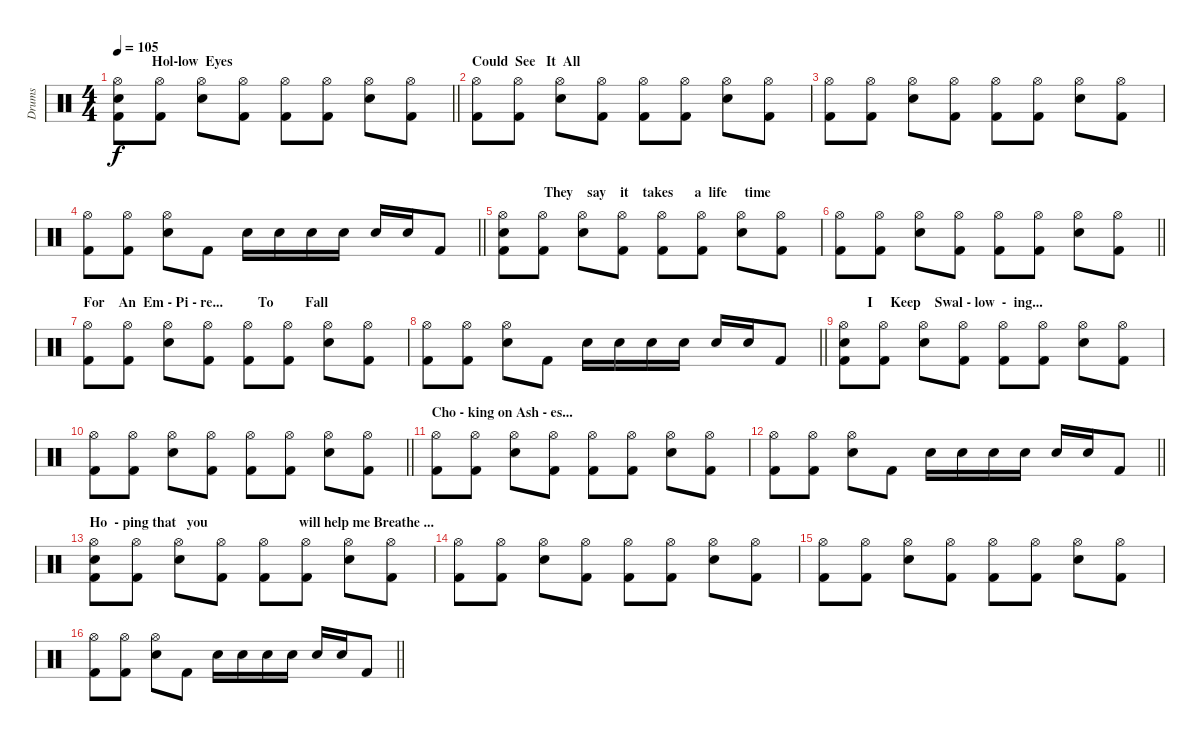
\track ("Drums " "Drums ") {instrument percussion}
\staff {score}
\articulation defaults
\ts (4 4)
\section ("" "           Hol-low  Eyes")
\tempo 105
\clef neutral
\barLineRight lightlight
\ks c
("Hi-Hat (open)" "Kick (hit) 2" "Snare (hit) 2").8{dy f} ("Hi-Hat (open)" "Kick (hit) 2").8 ("Hi-Hat (open)" "Snare (hit) 2").8 ("Hi-Hat (open)" "Kick (hit) 2").8 ("Hi-Hat (open)" "Kick (hit) 2").8 ("Hi-Hat (open)" "Kick (hit) 2").8 ("Hi-Hat (open)" "Snare (hit) 2").8 ("Hi-Hat (open)" "Kick (hit) 2").8 |
\section ("" "Could  See   It  All")
("Hi-Hat (open)" "Kick (hit) 2").8 ("Hi-Hat (open)" "Kick (hit) 2").8 ("Hi-Hat (open)" "Snare (hit) 2").8 ("Hi-Hat (open)" "Kick (hit) 2").8 ("Hi-Hat (open)" "Kick (hit) 2").8 ("Hi-Hat (open)" "Kick (hit) 2").8 ("Hi-Hat (open)" "Snare (hit) 2").8 ("Hi-Hat (open)" "Kick (hit) 2").8 |
("Hi-Hat (open)" "Kick (hit) 2").8 ("Hi-Hat (open)" "Kick (hit) 2").8 ("Hi-Hat (open)" "Snare (hit) 2").8 ("Hi-Hat (open)" "Kick (hit) 2").8 ("Hi-Hat (open)" "Kick (hit) 2").8 ("Hi-Hat (open)" "Kick (hit) 2").8 ("Hi-Hat (open)" "Snare (hit) 2").8 ("Hi-Hat (open)" "Kick (hit) 2").8 |
\barLineRight lightlight
("Hi-Hat (open)" "Kick (hit) 2").8 ("Hi-Hat (open)" "Kick (hit) 2").8 ("Hi-Hat (open)" "Snare (hit) 2").8 "Kick (hit) 2".8 "Snare (hit) 2".16 "Snare (hit) 2".16 "Snare (hit) 2".16 "Snare (hit) 2".16 "Snare (hit) 2".16 "Snare (hit) 2".16 "Kick (hit) 2".8 |
\section ("" "             They    say    it    takes      a  life     time")
("Hi-Hat (open)" "Kick (hit) 2" "Snare (hit) 2").8 ("Hi-Hat (open)" "Kick (hit) 2").8 ("Hi-Hat (open)" "Snare (hit) 2").8 ("Hi-Hat (open)" "Kick (hit) 2").8 ("Hi-Hat (open)" "Kick (hit) 2").8 ("Hi-Hat (open)" "Kick (hit) 2").8 ("Hi-Hat (open)" "Snare (hit) 2").8 ("Hi-Hat (open)" "Kick (hit) 2").8 |
\barLineRight lightlight
("Hi-Hat (open)" "Kick (hit) 2").8 ("Hi-Hat (open)" "Kick (hit) 2").8 ("Hi-Hat (open)" "Snare (hit) 2").8 ("Hi-Hat (open)" "Kick (hit) 2").8 ("Hi-Hat (open)" "Kick (hit) 2").8 ("Hi-Hat (open)" "Kick (hit) 2").8 ("Hi-Hat (open)" "Snare (hit) 2").8 ("Hi-Hat (open)" "Kick (hit) 2").8 |
\section ("" "For    An  Em - Pi - re...          To         Fall")
("Hi-Hat (open)" "Kick (hit) 2").8 ("Hi-Hat (open)" "Kick (hit) 2").8 ("Hi-Hat (open)" "Snare (hit) 2").8 ("Hi-Hat (open)" "Kick (hit) 2").8 ("Hi-Hat (open)" "Kick (hit) 2").8 ("Hi-Hat (open)" "Kick (hit) 2").8 ("Hi-Hat (open)" "Snare (hit) 2").8 ("Hi-Hat (open)" "Kick (hit) 2").8 |
\barLineRight lightlight
("Hi-Hat (open)" "Kick (hit) 2").8 ("Hi-Hat (open)" "Kick (hit) 2").8 ("Hi-Hat (open)" "Snare (hit) 2").8 "Kick (hit) 2".8 "Snare (hit) 2".16 "Snare (hit) 2".16 "Snare (hit) 2".16 "Snare (hit) 2".16 "Snare (hit) 2".16 "Snare (hit) 2".16 "Kick (hit) 2".8 |
\section ("" "        I     Keep    Swal - low  -  ing...")
("Hi-Hat (open)" "Kick (hit) 2" "Snare (hit) 2").8 ("Hi-Hat (open)" "Kick (hit) 2").8 ("Hi-Hat (open)" "Snare (hit) 2").8 ("Hi-Hat (open)" "Kick (hit) 2").8 ("Hi-Hat (open)" "Kick (hit) 2").8 ("Hi-Hat (open)" "Kick (hit) 2").8 ("Hi-Hat (open)" "Snare (hit) 2").8 ("Hi-Hat (open)" "Kick (hit) 2").8 |
\barLineRight lightlight
("Hi-Hat (open)" "Kick (hit) 2").8 ("Hi-Hat (open)" "Kick (hit) 2").8 ("Hi-Hat (open)" "Snare (hit) 2").8 ("Hi-Hat (open)" "Kick (hit) 2").8 ("Hi-Hat (open)" "Kick (hit) 2").8 ("Hi-Hat (open)" "Kick (hit) 2").8 ("Hi-Hat (open)" "Snare (hit) 2").8 ("Hi-Hat (open)" "Kick (hit) 2").8 |
\section ("" "Cho - king on Ash - es...")
("Hi-Hat (open)" "Kick (hit) 2").8 ("Hi-Hat (open)" "Kick (hit) 2").8 ("Hi-Hat (open)" "Snare (hit) 2").8 ("Hi-Hat (open)" "Kick (hit) 2").8 ("Hi-Hat (open)" "Kick (hit) 2").8 ("Hi-Hat (open)" "Kick (hit) 2").8 ("Hi-Hat (open)" "Snare (hit) 2").8 ("Hi-Hat (open)" "Kick (hit) 2").8 |
\barLineRight lightlight
("Hi-Hat (open)" "Kick (hit) 2").8 ("Hi-Hat (open)" "Kick (hit) 2").8 ("Hi-Hat (open)" "Snare (hit) 2").8 "Kick (hit) 2".8 "Snare (hit) 2".16 "Snare (hit) 2".16 "Snare (hit) 2".16 "Snare (hit) 2".16 "Snare (hit) 2".16 "Snare (hit) 2".16 "Kick (hit) 2".8 |
\section ("" "Ho  - ping that   you                          will help me Breathe ...")
("Hi-Hat (open)" "Kick (hit) 2" "Snare (hit) 2").8 ("Hi-Hat (open)" "Kick (hit) 2").8 ("Hi-Hat (open)" "Snare (hit) 2").8 ("Hi-Hat (open)" "Kick (hit) 2").8 ("Hi-Hat (open)" "Kick (hit) 2").8 ("Hi-Hat (open)" "Kick (hit) 2").8 ("Hi-Hat (open)" "Snare (hit) 2").8 ("Hi-Hat (open)" "Kick (hit) 2").8 |
("Hi-Hat (open)" "Kick (hit) 2").8 ("Hi-Hat (open)" "Kick (hit) 2").8 ("Hi-Hat (open)" "Snare (hit) 2").8 ("Hi-Hat (open)" "Kick (hit) 2").8 ("Hi-Hat (open)" "Kick (hit) 2").8 ("Hi-Hat (open)" "Kick (hit) 2").8 ("Hi-Hat (open)" "Snare (hit) 2").8 ("Hi-Hat (open)" "Kick (hit) 2").8 |
("Hi-Hat (open)" "Kick (hit) 2").8 ("Hi-Hat (open)" "Kick (hit) 2").8 ("Hi-Hat (open)" "Snare (hit) 2").8 ("Hi-Hat (open)" "Kick (hit) 2").8 ("Hi-Hat (open)" "Kick (hit) 2").8 ("Hi-Hat (open)" "Kick (hit) 2").8 ("Hi-Hat (open)" "Snare (hit) 2").8 ("Hi-Hat (open)" "Kick (hit) 2").8 |
\barLineRight lightlight
("Hi-Hat (open)" "Kick (hit) 2").8 ("Hi-Hat (open)" "Kick (hit) 2").8 ("Hi-Hat (open)" "Snare (hit) 2").8 "Kick (hit) 2".8 "Snare (hit) 2".16 "Snare (hit) 2".16 "Snare (hit) 2".16 "Snare (hit) 2".16 "Snare (hit) 2".16 "Snare (hit) 2".16 "Kick (hit) 2".8
